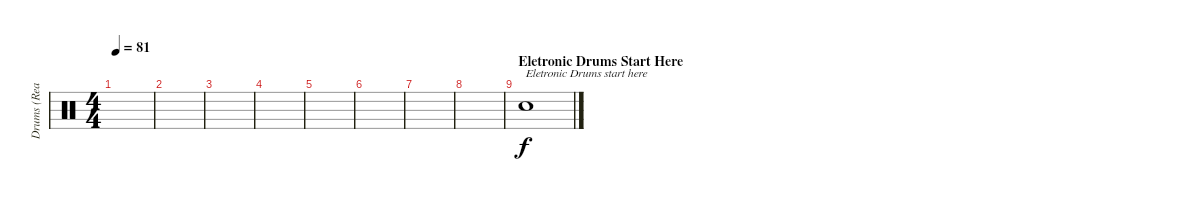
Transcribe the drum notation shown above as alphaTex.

\track ("Drums (Real)" "Drums (Rea") {instrument percussion}
\staff {score}
\articulation defaults
\ts (4 4)
\tempo 81
\clef neutral
\ks c
|
|
|
|
|
|
|
|
\section ("" "Eletronic Drums Start Here")
"Snare (hit)".1{txt "Eletronic Drums start here"}
